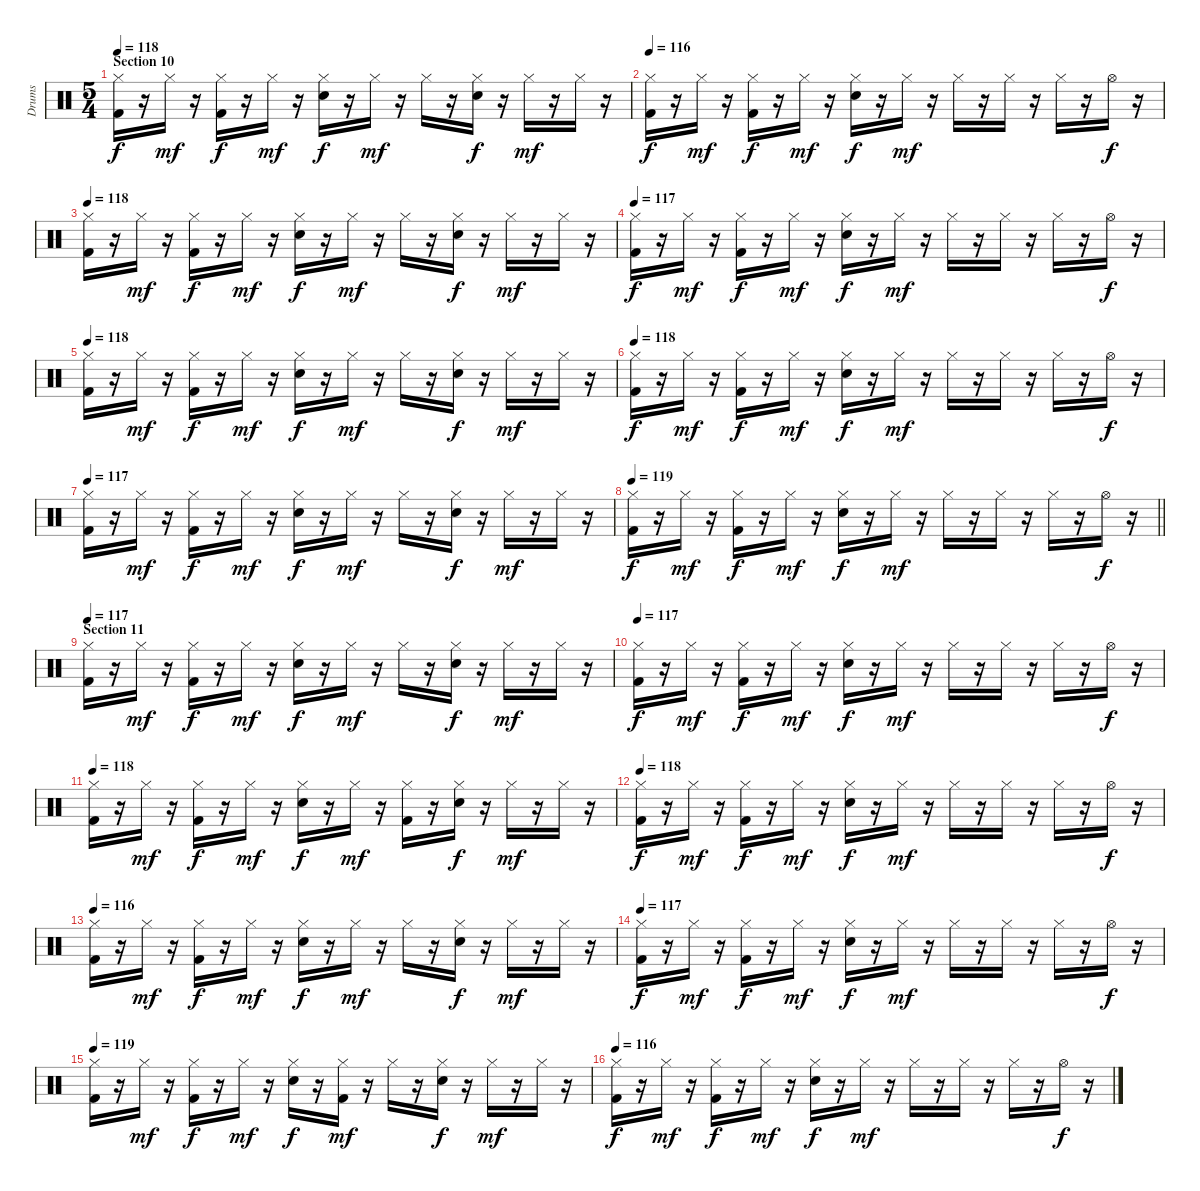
\track ("Drums" "Drums") {instrument percussion}
\staff {score}
\articulation defaults
\ts (5 4)
\section ("" "Section 10")
\tempo 118
\clef neutral
\ks c
("Hi-Hat (closed)" "Kick (hit) 2").16{dy f} r.16 "Hi-Hat (closed)".16{dy mf} r.16 ("Hi-Hat (closed)" "Kick (hit) 2").16{dy f} r.16 "Hi-Hat (closed)".16{dy mf} r.16 ("Hi-Hat (closed)" "Electric Snare (hit)").16{dy f} r.16 "Hi-Hat (closed)".16{dy mf} r.16 "Hi-Hat (closed)".16 r.16 ("Hi-Hat (closed)" "Electric Snare (hit)").16{dy f} r.16 "Hi-Hat (closed)".16{dy mf} r.16 "Hi-Hat (closed)".16 r.16 |
\tempo 116
("Hi-Hat (closed)" "Kick (hit) 2").16{dy f} r.16 "Hi-Hat (closed)".16{dy mf} r.16 ("Hi-Hat (closed)" "Kick (hit) 2").16{dy f} r.16 "Hi-Hat (closed)".16{dy mf} r.16 ("Hi-Hat (closed)" "Electric Snare (hit)").16{dy f} r.16 "Hi-Hat (closed)".16{dy mf} r.16 "Hi-Hat (closed)".16 r.16 "Hi-Hat (closed)".16 r.16 "Hi-Hat (closed)".16 r.16 "Hi-Hat (open)".16{dy f} r.16 |
\tempo 118
("Hi-Hat (closed)" "Kick (hit) 2").16 r.16 "Hi-Hat (closed)".16{dy mf} r.16 ("Hi-Hat (closed)" "Kick (hit) 2").16{dy f} r.16 "Hi-Hat (closed)".16{dy mf} r.16 ("Hi-Hat (closed)" "Electric Snare (hit)").16{dy f} r.16 "Hi-Hat (closed)".16{dy mf} r.16 "Hi-Hat (closed)".16 r.16 ("Hi-Hat (closed)" "Electric Snare (hit)").16{dy f} r.16 "Hi-Hat (closed)".16{dy mf} r.16 "Hi-Hat (closed)".16 r.16 |
\tempo 117
("Hi-Hat (closed)" "Kick (hit) 2").16{dy f} r.16 "Hi-Hat (closed)".16{dy mf} r.16 ("Hi-Hat (closed)" "Kick (hit) 2").16{dy f} r.16 "Hi-Hat (closed)".16{dy mf} r.16 ("Hi-Hat (closed)" "Electric Snare (hit)").16{dy f} r.16 "Hi-Hat (closed)".16{dy mf} r.16 "Hi-Hat (closed)".16 r.16 "Hi-Hat (closed)".16 r.16 "Hi-Hat (closed)".16 r.16 "Hi-Hat (open)".16{dy f} r.16 |
\tempo 118
("Hi-Hat (closed)" "Kick (hit) 2").16 r.16 "Hi-Hat (closed)".16{dy mf} r.16 ("Hi-Hat (closed)" "Kick (hit) 2").16{dy f} r.16 "Hi-Hat (closed)".16{dy mf} r.16 ("Hi-Hat (closed)" "Electric Snare (hit)").16{dy f} r.16 "Hi-Hat (closed)".16{dy mf} r.16 "Hi-Hat (closed)".16 r.16 ("Hi-Hat (closed)" "Electric Snare (hit)").16{dy f} r.16 "Hi-Hat (closed)".16{dy mf} r.16 "Hi-Hat (closed)".16 r.16 |
\tempo 118
("Hi-Hat (closed)" "Kick (hit) 2").16{dy f} r.16 "Hi-Hat (closed)".16{dy mf} r.16 ("Hi-Hat (closed)" "Kick (hit) 2").16{dy f} r.16 "Hi-Hat (closed)".16{dy mf} r.16 ("Hi-Hat (closed)" "Electric Snare (hit)").16{dy f} r.16 "Hi-Hat (closed)".16{dy mf} r.16 "Hi-Hat (closed)".16 r.16 "Hi-Hat (closed)".16 r.16 "Hi-Hat (closed)".16 r.16 "Hi-Hat (open)".16{dy f} r.16 |
\tempo 117
("Hi-Hat (closed)" "Kick (hit) 2").16 r.16 "Hi-Hat (closed)".16{dy mf} r.16 ("Hi-Hat (closed)" "Kick (hit) 2").16{dy f} r.16 "Hi-Hat (closed)".16{dy mf} r.16 ("Hi-Hat (closed)" "Electric Snare (hit)").16{dy f} r.16 "Hi-Hat (closed)".16{dy mf} r.16 "Hi-Hat (closed)".16 r.16 ("Hi-Hat (closed)" "Electric Snare (hit)").16{dy f} r.16 "Hi-Hat (closed)".16{dy mf} r.16 "Hi-Hat (closed)".16 r.16 |
\tempo 119
\barLineRight lightlight
("Hi-Hat (closed)" "Kick (hit) 2").16{dy f} r.16 "Hi-Hat (closed)".16{dy mf} r.16 ("Hi-Hat (closed)" "Kick (hit) 2").16{dy f} r.16 "Hi-Hat (closed)".16{dy mf} r.16 ("Hi-Hat (closed)" "Electric Snare (hit)").16{dy f} r.16 "Hi-Hat (closed)".16{dy mf} r.16 "Hi-Hat (closed)".16 r.16 "Hi-Hat (closed)".16 r.16 "Hi-Hat (closed)".16 r.16 "Hi-Hat (open)".16{dy f} r.16 |
\section ("" "Section 11")
\tempo 117
("Hi-Hat (closed)" "Kick (hit) 2").16 r.16 "Hi-Hat (closed)".16{dy mf} r.16 ("Hi-Hat (closed)" "Kick (hit) 2").16{dy f} r.16 "Hi-Hat (closed)".16{dy mf} r.16 ("Hi-Hat (closed)" "Electric Snare (hit)").16{dy f} r.16 "Hi-Hat (closed)".16{dy mf} r.16 "Hi-Hat (closed)".16 r.16 ("Hi-Hat (closed)" "Electric Snare (hit)").16{dy f} r.16 "Hi-Hat (closed)".16{dy mf} r.16 "Hi-Hat (closed)".16 r.16 |
\tempo 117
("Hi-Hat (closed)" "Kick (hit) 2").16{dy f} r.16 "Hi-Hat (closed)".16{dy mf} r.16 ("Hi-Hat (closed)" "Kick (hit) 2").16{dy f} r.16 "Hi-Hat (closed)".16{dy mf} r.16 ("Hi-Hat (closed)" "Electric Snare (hit)").16{dy f} r.16 "Hi-Hat (closed)".16{dy mf} r.16 "Hi-Hat (closed)".16 r.16 "Hi-Hat (closed)".16 r.16 "Hi-Hat (closed)".16 r.16 "Hi-Hat (open)".16{dy f} r.16 |
\tempo 118
("Hi-Hat (closed)" "Kick (hit) 2").16 r.16 "Hi-Hat (closed)".16{dy mf} r.16 ("Hi-Hat (closed)" "Kick (hit) 2").16{dy f} r.16 "Hi-Hat (closed)".16{dy mf} r.16 ("Hi-Hat (closed)" "Electric Snare (hit)").16{dy f} r.16 "Hi-Hat (closed)".16{dy mf} r.16 ("Hi-Hat (closed)" "Kick (hit) 2").16 r.16 ("Hi-Hat (closed)" "Electric Snare (hit)").16{dy f} r.16 "Hi-Hat (closed)".16{dy mf} r.16 "Hi-Hat (closed)".16 r.16 |
\tempo 118
("Hi-Hat (closed)" "Kick (hit) 2").16{dy f} r.16 "Hi-Hat (closed)".16{dy mf} r.16 ("Hi-Hat (closed)" "Kick (hit) 2").16{dy f} r.16 "Hi-Hat (closed)".16{dy mf} r.16 ("Hi-Hat (closed)" "Electric Snare (hit)").16{dy f} r.16 "Hi-Hat (closed)".16{dy mf} r.16 "Hi-Hat (closed)".16 r.16 "Hi-Hat (closed)".16 r.16 "Hi-Hat (closed)".16 r.16 "Hi-Hat (open)".16{dy f} r.16 |
\tempo 116
("Hi-Hat (closed)" "Kick (hit) 2").16 r.16 "Hi-Hat (closed)".16{dy mf} r.16 ("Hi-Hat (closed)" "Kick (hit) 2").16{dy f} r.16 "Hi-Hat (closed)".16{dy mf} r.16 ("Hi-Hat (closed)" "Electric Snare (hit)").16{dy f} r.16 "Hi-Hat (closed)".16{dy mf} r.16 "Hi-Hat (closed)".16 r.16 ("Hi-Hat (closed)" "Electric Snare (hit)").16{dy f} r.16 "Hi-Hat (closed)".16{dy mf} r.16 "Hi-Hat (closed)".16 r.16 |
\tempo 117
("Hi-Hat (closed)" "Kick (hit) 2").16{dy f} r.16 "Hi-Hat (closed)".16{dy mf} r.16 ("Hi-Hat (closed)" "Kick (hit) 2").16{dy f} r.16 "Hi-Hat (closed)".16{dy mf} r.16 ("Hi-Hat (closed)" "Electric Snare (hit)").16{dy f} r.16 "Hi-Hat (closed)".16{dy mf} r.16 "Hi-Hat (closed)".16 r.16 "Hi-Hat (closed)".16 r.16 "Hi-Hat (closed)".16 r.16 "Hi-Hat (open)".16{dy f} r.16 |
\tempo 119
("Hi-Hat (closed)" "Kick (hit) 2").16 r.16 "Hi-Hat (closed)".16{dy mf} r.16 ("Hi-Hat (closed)" "Kick (hit) 2").16{dy f} r.16 "Hi-Hat (closed)".16{dy mf} r.16 ("Hi-Hat (closed)" "Electric Snare (hit)").16{dy f} r.16 ("Hi-Hat (closed)" "Kick (hit) 2").16{dy mf} r.16 "Hi-Hat (closed)".16 r.16 ("Hi-Hat (closed)" "Electric Snare (hit)").16{dy f} r.16 "Hi-Hat (closed)".16{dy mf} r.16 "Hi-Hat (closed)".16 r.16 |
\tempo 116
("Hi-Hat (closed)" "Kick (hit) 2").16{dy f} r.16 "Hi-Hat (closed)".16{dy mf} r.16 ("Hi-Hat (closed)" "Kick (hit) 2").16{dy f} r.16 "Hi-Hat (closed)".16{dy mf} r.16 ("Hi-Hat (closed)" "Electric Snare (hit)").16{dy f} r.16 "Hi-Hat (closed)".16{dy mf} r.16 "Hi-Hat (closed)".16 r.16 "Hi-Hat (closed)".16 r.16 "Hi-Hat (closed)".16 r.16 "Hi-Hat (open)".16{dy f} r.16
